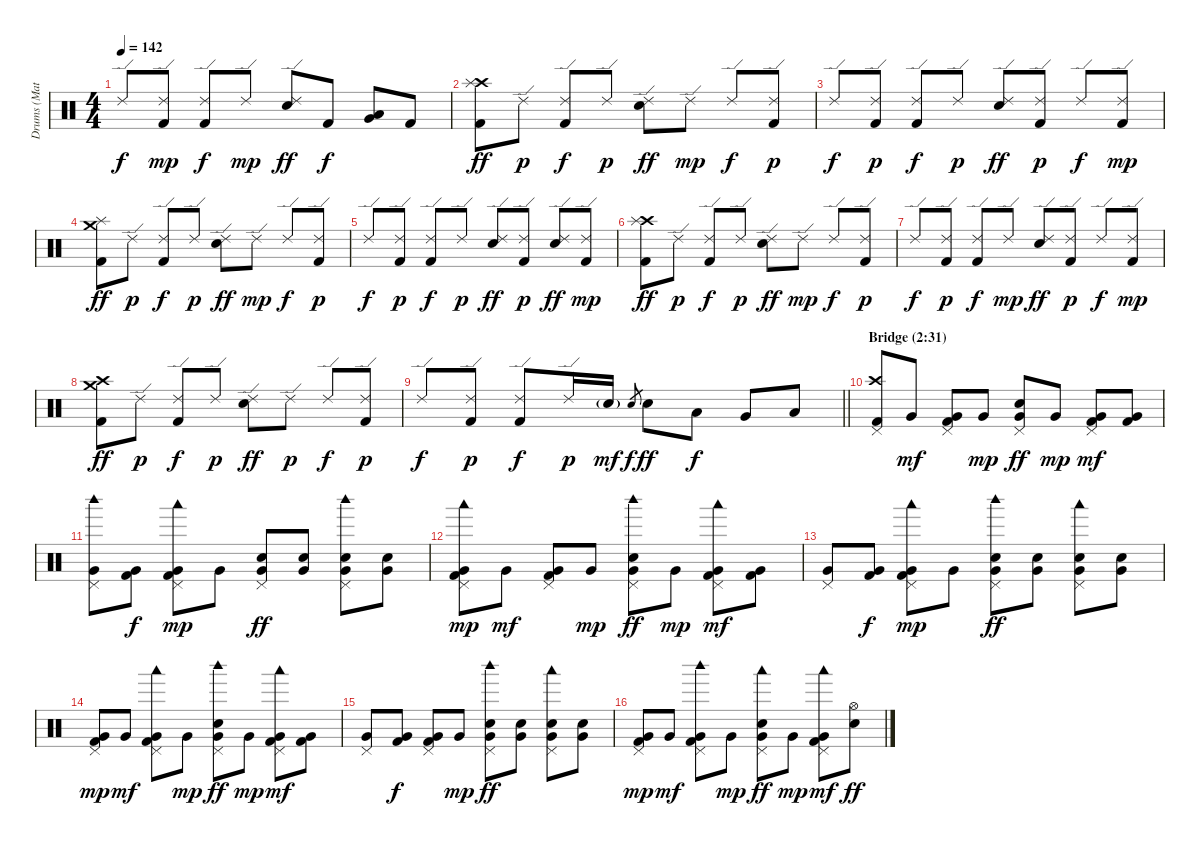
\track ("Drums (Matt Sorum)" "Drums (Mat") {instrument percussion}
\staff {score}
\articulation defaults
\ts (4 4)
\tempo 142
\clef neutral
\ks c "Ride (edge) 2".8{dy f}
("Ride (edge) 2" "Kick (hit) 2").8{dy mp} ("Ride (edge) 2" "Kick (hit) 2").8{dy f} "Ride (edge) 2".8{dy mp} ("Ride (edge) 2" "Snare (hit) 2").8{dy ff} "Kick (hit) 2".8{dy f} ("Low Tom (hit)" "Very Low Tom (hit)").8 "Kick (hit) 2".8 |
("Crash high (hit)" "Splash (hit)" "Kick (hit) 2").8{dy ff} "Ride (edge) 2".8{dy p} ("Ride (edge) 2" "Kick (hit) 2").8{dy f} "Ride (edge) 2".8{dy p} ("Ride (edge) 2" "Snare (hit) 2").8{dy ff} "Ride (edge) 2".8{dy mp} "Ride (edge) 2".8{dy f} ("Ride (edge) 2" "Kick (hit) 2").8{dy p} |
"Ride (edge) 2".8{dy f} ("Ride (edge) 2" "Kick (hit) 2").8{dy p} ("Ride (edge) 2" "Kick (hit) 2").8{dy f} "Ride (edge) 2".8{dy p} ("Ride (edge) 2" "Snare (hit) 2").8{dy ff} ("Ride (edge) 2" "Kick (hit) 2").8{dy p} "Ride (edge) 2".8{dy f} ("Ride (edge) 2" "Kick (hit) 2").8{dy mp} |
("Crash medium (hit)" "Splash (hit)" "Kick (hit) 2").8{dy ff} "Ride (edge) 2".8{dy p} ("Ride (edge) 2" "Kick (hit) 2").8{dy f} "Ride (edge) 2".8{dy p} ("Ride (edge) 2" "Snare (hit) 2").8{dy ff} "Ride (edge) 2".8{dy mp} "Ride (edge) 2".8{dy f} ("Ride (edge) 2" "Kick (hit) 2").8{dy p} |
"Ride (edge) 2".8{dy f} ("Ride (edge) 2" "Kick (hit) 2").8{dy p} ("Ride (edge) 2" "Kick (hit) 2").8{dy f} "Ride (edge) 2".8{dy p} ("Ride (edge) 2" "Snare (hit) 2").8{dy ff} ("Ride (edge) 2" "Kick (hit) 2").8{dy p} ("Ride (edge) 2" "Snare (hit) 2").8{dy ff} ("Ride (edge) 2" "Kick (hit) 2").8{dy mp} |
("Crash high (hit)" "Splash (hit)" "Kick (hit) 2").8{dy ff} "Ride (edge) 2".8{dy p} ("Ride (edge) 2" "Kick (hit) 2").8{dy f} "Ride (edge) 2".8{dy p} ("Ride (edge) 2" "Snare (hit) 2").8{dy ff} "Ride (edge) 2".8{dy mp} "Ride (edge) 2".8{dy f} ("Ride (edge) 2" "Kick (hit) 2").8{dy p} |
"Ride (edge) 2".8{dy f} ("Ride (edge) 2" "Kick (hit) 2").8{dy p} ("Ride (edge) 2" "Kick (hit) 2").8{dy f} "Ride (edge) 2".8{dy mp} ("Ride (edge) 2" "Snare (hit) 2").8{dy ff} ("Ride (edge) 2" "Kick (hit) 2").8{dy p} "Ride (edge) 2".8{dy f} ("Ride (edge) 2" "Kick (hit) 2").8{dy mp} |
("Crash high (hit)" "Crash medium (hit)" "Kick (hit) 2").8{dy ff} "Ride (edge) 2".8{dy p} ("Ride (edge) 2" "Kick (hit) 2").8{dy f} "Ride (edge) 2".8{dy p} ("Ride (edge) 2" "Snare (hit) 2").8{dy ff} "Ride (edge) 2".8{dy p} "Ride (edge) 2".8{dy f} ("Ride (edge) 2" "Kick (hit) 2").8{dy p} |
\barLineRight lightlight "Ride (edge) 2".8{dy f}
("Ride (edge) 2" "Kick (hit) 2").8{dy p} ("Ride (edge) 2" "Kick (hit) 2").8{dy f} "Ride (edge) 2".16{dy p} "Snare (hit) 2"{g}.16{dy mf} "Snare (hit) 2".8{gr dy f} "Snare (hit) 2".8{dy ff} "Low Tom (hit)".8{dy f} "Very Low Tom (hit)".8 "Low Floor Tom (hit)".8 |
\section ("" "Bridge (2:31)")
("Crash high (hit)" "Pedal Hi-Hat (hit)" "Kick (hit) 2").8 "Very Low Tom (hit)".8{dy mf} ("Very Low Tom (hit)" "Pedal Hi-Hat (hit)" "Kick (hit) 2").8 "Very Low Tom (hit)".8{dy mp} ("Very Low Tom (hit)" "Snare (hit) 2" "Pedal Hi-Hat (hit)").8{dy ff} "Very Low Tom (hit)".8{dy mp} ("Very Low Tom (hit)" "Pedal Hi-Hat (hit)" "Kick (hit) 2").8{dy mf} ("Very Low Tom (hit)" "Kick (hit) 2").8 |
("Woodblock high (hit)" "Very Low Tom (hit)" "Pedal Hi-Hat (hit)").8 ("Very Low Tom (hit)" "Kick (hit) 2").8{dy f} ("Woodblock low (hit)" "Very Low Tom (hit)" "Pedal Hi-Hat (hit)" "Kick (hit) 2").8{dy mp} "Very Low Tom (hit)".8 ("Very Low Tom (hit)" "Snare (hit) 2" "Pedal Hi-Hat (hit)").8{dy ff} ("Very Low Tom (hit)" "Snare (hit) 2").8 ("Woodblock high (hit)" "Very Low Tom (hit)" "Snare (hit) 2" "Pedal Hi-Hat (hit)").8 ("Very Low Tom (hit)" "Snare (hit) 2").8 |
("Woodblock low (hit)" "Very Low Tom (hit)" "Pedal Hi-Hat (hit)" "Kick (hit) 2").8{dy mp} "Very Low Tom (hit)".8{dy mf} ("Very Low Tom (hit)" "Pedal Hi-Hat (hit)" "Kick (hit) 2").8 "Very Low Tom (hit)".8{dy mp} ("Woodblock high (hit)" "Very Low Tom (hit)" "Snare (hit) 2" "Pedal Hi-Hat (hit)").8{dy ff} "Very Low Tom (hit)".8{dy mp} ("Woodblock low (hit)" "Very Low Tom (hit)" "Pedal Hi-Hat (hit)" "Kick (hit) 2").8{dy mf} ("Very Low Tom (hit)" "Kick (hit) 2").8 |
("Very Low Tom (hit)" "Pedal Hi-Hat (hit)").8 ("Very Low Tom (hit)" "Kick (hit) 2").8{dy f} ("Woodblock low (hit)" "Very Low Tom (hit)" "Pedal Hi-Hat (hit)" "Kick (hit) 2").8{dy mp} "Very Low Tom (hit)".8 ("Woodblock high (hit)" "Very Low Tom (hit)" "Snare (hit) 2" "Pedal Hi-Hat (hit)").8{dy ff} ("Very Low Tom (hit)" "Snare (hit) 2").8 ("Woodblock low (hit)" "Very Low Tom (hit)" "Snare (hit) 2" "Pedal Hi-Hat (hit)").8 ("Very Low Tom (hit)" "Snare (hit) 2").8 |
("Very Low Tom (hit)" "Pedal Hi-Hat (hit)" "Kick (hit) 2").8{dy mp} "Very Low Tom (hit)".8{dy mf} ("Woodblock low (hit)" "Very Low Tom (hit)" "Pedal Hi-Hat (hit)" "Kick (hit) 2").8 "Very Low Tom (hit)".8{dy mp} ("Woodblock high (hit)" "Very Low Tom (hit)" "Snare (hit) 2" "Pedal Hi-Hat (hit)").8{dy ff} "Very Low Tom (hit)".8{dy mp} ("Woodblock low (hit)" "Very Low Tom (hit)" "Pedal Hi-Hat (hit)" "Kick (hit) 2").8{dy mf} ("Very Low Tom (hit)" "Kick (hit) 2").8 |
("Very Low Tom (hit)" "Pedal Hi-Hat (hit)").8 ("Very Low Tom (hit)" "Kick (hit) 2").8{dy f} ("Very Low Tom (hit)" "Pedal Hi-Hat (hit)" "Kick (hit) 2").8 "Very Low Tom (hit)".8{dy mp} ("Woodblock high (hit)" "Very Low Tom (hit)" "Snare (hit) 2" "Pedal Hi-Hat (hit)").8{dy ff} ("Very Low Tom (hit)" "Snare (hit) 2").8 ("Woodblock low (hit)" "Very Low Tom (hit)" "Snare (hit) 2" "Pedal Hi-Hat (hit)").8 ("Very Low Tom (hit)" "Snare (hit) 2").8 |
("Very Low Tom (hit)" "Pedal Hi-Hat (hit)" "Kick (hit) 2").8{dy mp} "Very Low Tom (hit)".8{dy mf} ("Woodblock high (hit)" "Very Low Tom (hit)" "Pedal Hi-Hat (hit)" "Kick (hit) 2").8 "Very Low Tom (hit)".8{dy mp} ("Woodblock low (hit)" "Very Low Tom (hit)" "Snare (hit) 2" "Pedal Hi-Hat (hit)").8{dy ff} "Very Low Tom (hit)".8{dy mp} ("Woodblock low (hit)" "Very Low Tom (hit)" "Pedal Hi-Hat (hit)" "Kick (hit) 2").8{dy mf} ("Hi-Hat (open)" "Snare (hit) 2").8{dy ff}
